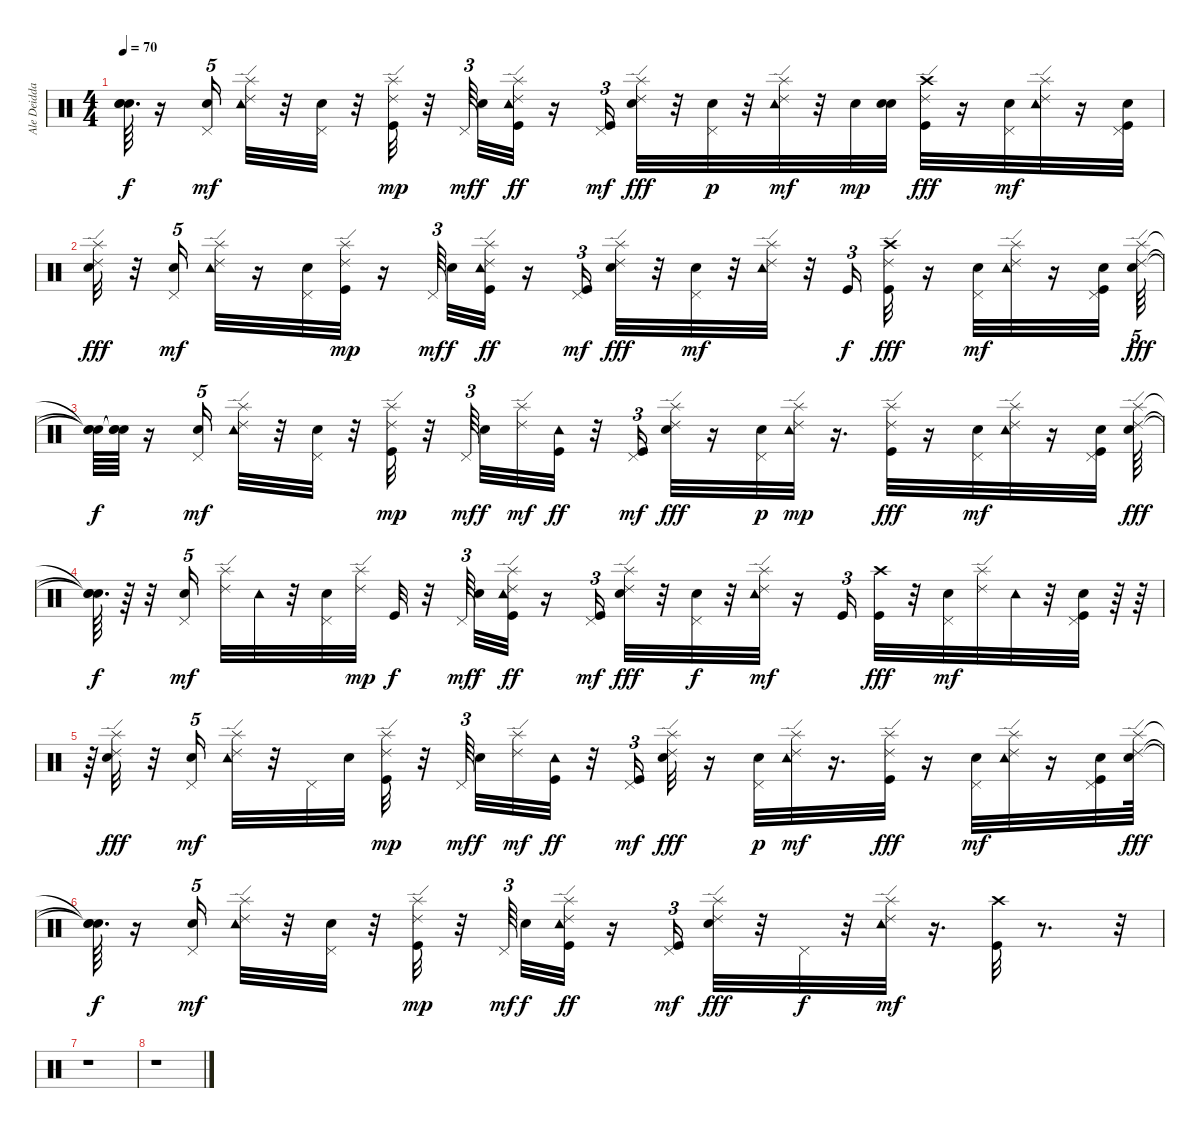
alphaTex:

\track ("Ale Deidda" "Ale Deidda") {instrument percussion}
\staff {score}
\articulation defaults
\ts (4 4)
\tempo 70
\clef neutral
\ks c
("Snare (hit)"{t} "Snare (hit)"{t} "Snare (hit)"{t}).64{d dy f} r.16 ("Snare (hit) 2" "Pedal Hi-Hat (hit)").16{tu (5 4) dy mf} ("Splash (hit)" "Ride (edge) 2" "Tambourine (hit)").32 r.32 ("Pedal Hi-Hat (hit)" "Snare (hit) 2").32 r.32 ("Splash (hit)" "Ride (edge) 2" "Kick (hit)").32{dy mp} r.32 "Pedal Hi-Hat (hit)".64{tu (3 2) dy mf beam splitsecondary} "Snare (hit) 2".32{dy f} ("Splash (hit)" "Ride (edge) 2" "Tambourine (hit)" "Kick (hit)").32{dy ff} r.16 ("Pedal Hi-Hat (hit)" "Kick (hit)").16{tu (3 2) dy mf} ("Electric Snare (hit)" "Splash (hit)" "Ride (edge) 2").32{dy fff} r.32 ("Snare (hit) 2" "Pedal Hi-Hat (hit)").32{dy p} r.32 ("Splash (hit)" "Ride (edge) 2" "Tambourine (hit)").32{dy mf} r.32 "Electric Snare (hit)".32{dy mp} ("Electric Snare (hit)" "Electric Snare (hit)").32 ("Kick (hit)" "Crash high (hit)" "Ride (edge) 2").32{dy fff} r.16 ("Snare (hit) 2" "Pedal Hi-Hat (hit)").32{dy mf} ("Splash (hit)" "Ride (edge) 2" "Tambourine (hit)").32 r.16 ("Snare (hit) 2" "Pedal Hi-Hat (hit)" "Kick (hit)").32 |
("Splash (hit)" "Ride (edge) 2" "Electric Snare (hit)").32{dy fff} r.32 ("Snare (hit) 2" "Pedal Hi-Hat (hit)").16{tu (5 4) dy mf} ("Splash (hit)" "Ride (edge) 2" "Tambourine (hit)").32 r.16 ("Pedal Hi-Hat (hit)" "Snare (hit) 2").32 ("Splash (hit)" "Ride (edge) 2" "Kick (hit)").32{dy mp} r.16 "Pedal Hi-Hat (hit)".64{tu (3 2) dy mf beam splitsecondary} "Snare (hit) 2".32{dy f} ("Splash (hit)" "Ride (edge) 2" "Tambourine (hit)" "Kick (hit)").32{dy ff} r.16 ("Pedal Hi-Hat (hit)" "Kick (hit)").16{tu (3 2) dy mf} ("Electric Snare (hit)" "Splash (hit)" "Ride (edge) 2").32{dy fff} r.32 ("Electric Snare (hit)" "Pedal Hi-Hat (hit)").32{dy mf} r.32 ("Splash (hit)" "Ride (edge) 2" "Tambourine (hit)").32 r.32 "Kick (hit)".16{tu (3 2) dy f} ("Kick (hit)" "Crash high (hit)" "Ride (edge) 2").32{dy fff} r.16 ("Snare (hit) 2" "Pedal Hi-Hat (hit)").32{dy mf} ("Splash (hit)" "Ride (edge) 2" "Tambourine (hit)").32 r.16 ("Snare (hit) 2" "Pedal Hi-Hat (hit)" "Kick (hit)").32 ("Splash (hit)" "Ride (edge) 2" "Electric Snare (hit)").64{tu (5 4) dy fff} |
("Snare (hit)"{t} "Snare (hit)"{t} "Snare (hit)"{t}).64{dy f} ("Snare (hit)"{t} "Snare (hit)"{t} "Snare (hit)"{t}).64 r.16 ("Snare (hit) 2" "Pedal Hi-Hat (hit)").16{tu (5 4) dy mf} ("Splash (hit)" "Ride (edge) 2" "Tambourine (hit)").32 r.32 ("Pedal Hi-Hat (hit)" "Snare (hit) 2").32 r.32 ("Splash (hit)" "Ride (edge) 2" "Kick (hit)").32{dy mp} r.32 "Pedal Hi-Hat (hit)".64{tu (3 2) dy mf beam splitsecondary} "Snare (hit) 2".32{dy f} ("Splash (hit)" "Ride (edge) 2").32{dy mf} ("Tambourine (hit)" "Kick (hit)").32{dy ff} r.32 ("Pedal Hi-Hat (hit)" "Kick (hit)").16{tu (3 2) dy mf} ("Electric Snare (hit)" "Splash (hit)" "Ride (edge) 2").32{dy fff} r.16 ("Snare (hit) 2" "Pedal Hi-Hat (hit)").32{dy p} ("Splash (hit)" "Ride (edge) 2" "Tambourine (hit)").32{dy mp} r.16{d} ("Kick (hit)" "Splash (hit)" "Ride (edge) 2").32{dy fff} r.16 ("Snare (hit) 2" "Pedal Hi-Hat (hit)").32{dy mf} ("Splash (hit)" "Ride (edge) 2" "Tambourine (hit)").32 r.16 ("Snare (hit) 2" "Pedal Hi-Hat (hit)" "Kick (hit)").32 ("Splash (hit)" "Ride (edge) 2" "Electric Snare (hit)").64{dy fff} |
("Snare (hit)"{t} "Snare (hit)"{t} "Snare (hit)"{t}).64{d dy f} r.64 r.32 ("Snare (hit) 2" "Pedal Hi-Hat (hit)").16{tu (5 4) dy mf beam splitsecondary} ("Splash (hit)" "Ride (edge) 2").32 "Tambourine (hit)".32 r.32 ("Pedal Hi-Hat (hit)" "Snare (hit) 2").32 ("Splash (hit)" "Ride (edge) 2").32{dy mp} "Kick (hit)".32{dy f} r.32 "Pedal Hi-Hat (hit)".64{tu (3 2) dy mf beam splitsecondary} "Snare (hit) 2".32{dy f} ("Splash (hit)" "Ride (edge) 2" "Tambourine (hit)" "Kick (hit)").32{dy ff} r.16 ("Pedal Hi-Hat (hit)" "Kick (hit)").16{tu (3 2) dy mf} ("Electric Snare (hit)" "Splash (hit)" "Ride (edge) 2").32{dy fff} r.32 ("Pedal Hi-Hat (hit)" "Electric Snare (hit)").32{dy f} r.32 ("Splash (hit)" "Ride (edge) 2" "Tambourine (hit)").32{dy mf} r.16 "Kick (hit)".16{tu (3 2)} ("Kick (hit)" "Crash high (hit)").32{dy fff} r.32 ("Snare (hit) 2" "Pedal Hi-Hat (hit)").32{dy mf} ("Splash (hit)" "Ride (edge) 2").32 "Tambourine (hit)".32 r.32 ("Snare (hit) 2" "Pedal Hi-Hat (hit)" "Kick (hit)").32 r.64 r.64 |
r.64 ("Splash (hit)" "Ride (edge) 2" "Electric Snare (hit)").32{dy fff} r.32 ("Snare (hit) 2" "Pedal Hi-Hat (hit)").16{tu (5 4) dy mf} ("Splash (hit)" "Ride (edge) 2" "Tambourine (hit)").32 r.32 "Pedal Hi-Hat (hit)".32 "Snare (hit) 2".32 ("Splash (hit)" "Ride (edge) 2" "Kick (hit)").32{dy mp} r.32 "Pedal Hi-Hat (hit)".64{tu (3 2) dy mf beam splitsecondary} "Snare (hit) 2".32{dy f} ("Splash (hit)" "Ride (edge) 2").32{dy mf} ("Tambourine (hit)" "Kick (hit)").32{dy ff} r.32 ("Pedal Hi-Hat (hit)" "Kick (hit)").16{tu (3 2) dy mf} ("Electric Snare (hit)" "Splash (hit)" "Ride (edge) 2").32{dy fff} r.16 ("Snare (hit) 2" "Pedal Hi-Hat (hit)").32{dy p} ("Splash (hit)" "Ride (edge) 2" "Tambourine (hit)").32{dy mf} r.16{d} ("Kick (hit)" "Splash (hit)" "Ride (edge) 2").32{dy fff} r.16 ("Snare (hit) 2" "Pedal Hi-Hat (hit)").32{dy mf} ("Splash (hit)" "Ride (edge) 2" "Tambourine (hit)").32 r.16 ("Snare (hit) 2" "Pedal Hi-Hat (hit)" "Kick (hit)").32 ("Splash (hit)" "Ride (edge) 2" "Electric Snare (hit)").64{dy fff} |
("Snare (hit)"{t} "Snare (hit)"{t} "Snare (hit)"{t}).64{d dy f} r.16 ("Snare (hit) 2" "Pedal Hi-Hat (hit)").16{tu (5 4) dy mf} ("Splash (hit)" "Ride (edge) 2" "Tambourine (hit)").32 r.32 ("Pedal Hi-Hat (hit)" "Snare (hit) 2").32 r.32 ("Splash (hit)" "Ride (edge) 2" "Kick (hit)").32{dy mp} r.32 "Pedal Hi-Hat (hit)".64{tu (3 2) dy mf beam splitsecondary} "Snare (hit) 2".32{dy f} ("Splash (hit)" "Ride (edge) 2" "Tambourine (hit)" "Kick (hit)").32{dy ff} r.16 ("Pedal Hi-Hat (hit)" "Kick (hit)").16{tu (3 2) dy mf} ("Splash (hit)" "Ride (edge) 2" "Electric Snare (hit)").32{dy fff} r.32 "Pedal Hi-Hat (hit)".32{dy f} r.32 ("Splash (hit)" "Ride (edge) 2" "Tambourine (hit)").32{dy mf} r.16{d} ("Kick (hit)" "Crash high (hit)").32 r.8{d} r.32 |
r.1 |
r.1
